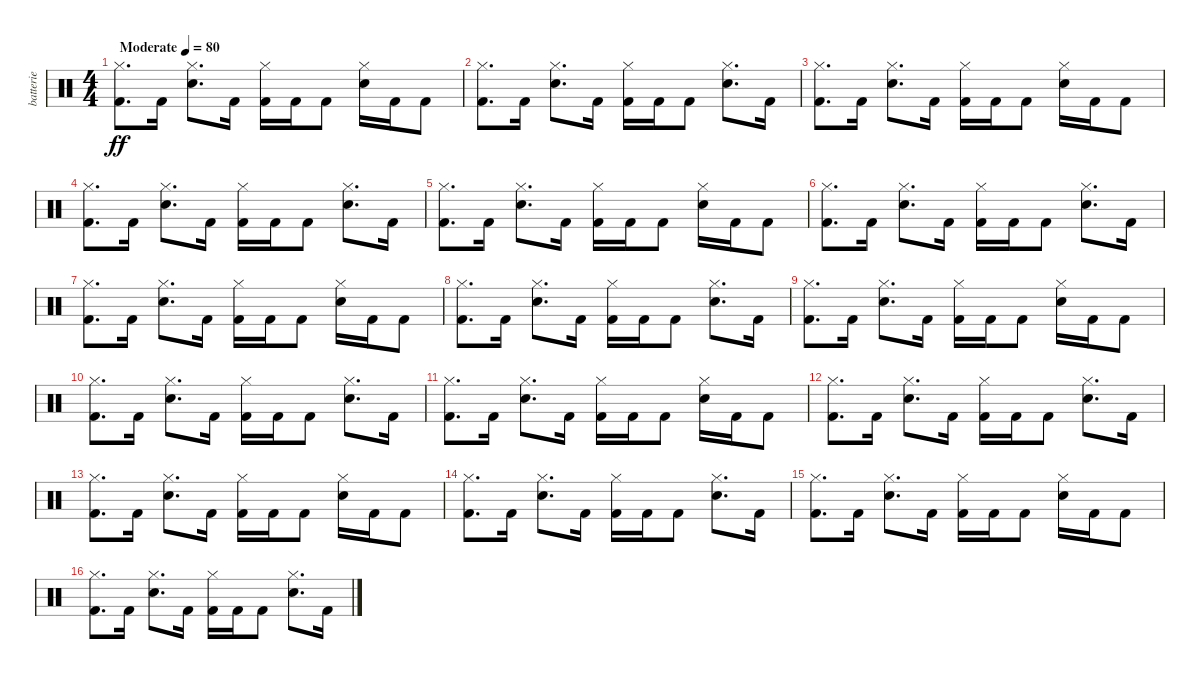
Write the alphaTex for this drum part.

\track ("batterie" "batterie") {instrument percussion}
\staff {score}
\articulation defaults
\ts (4 4)
\tempo (80 "Moderate")
\clef neutral
\ks c
("Kick (hit) 2" "Hi-Hat (closed)").8{d dy ff} "Kick (hit) 2".16 ("Electric Snare (hit)" "Hi-Hat (closed)").8{d} "Kick (hit) 2".16 ("Kick (hit) 2" "Hi-Hat (closed)").16 "Kick (hit) 2".16 "Kick (hit) 2".8 ("Electric Snare (hit)" "Hi-Hat (closed)").16 "Kick (hit) 2".16 "Kick (hit) 2".8 |
("Kick (hit) 2" "Hi-Hat (closed)").8{d} "Kick (hit) 2".16 ("Electric Snare (hit)" "Hi-Hat (closed)").8{d} "Kick (hit) 2".16 ("Kick (hit) 2" "Hi-Hat (closed)").16 "Kick (hit) 2".16 "Kick (hit) 2".8 ("Electric Snare (hit)" "Hi-Hat (closed)").8{d} "Kick (hit) 2".16 |
("Kick (hit) 2" "Hi-Hat (closed)").8{d} "Kick (hit) 2".16 ("Electric Snare (hit)" "Hi-Hat (closed)").8{d} "Kick (hit) 2".16 ("Kick (hit) 2" "Hi-Hat (closed)").16 "Kick (hit) 2".16 "Kick (hit) 2".8 ("Electric Snare (hit)" "Hi-Hat (closed)").16 "Kick (hit) 2".16 "Kick (hit) 2".8 |
("Kick (hit) 2" "Hi-Hat (closed)").8{d} "Kick (hit) 2".16 ("Electric Snare (hit)" "Hi-Hat (closed)").8{d} "Kick (hit) 2".16 ("Kick (hit) 2" "Hi-Hat (closed)").16 "Kick (hit) 2".16 "Kick (hit) 2".8 ("Electric Snare (hit)" "Hi-Hat (closed)").8{d} "Kick (hit) 2".16 |
("Kick (hit) 2" "Hi-Hat (closed)").8{d} "Kick (hit) 2".16 ("Electric Snare (hit)" "Hi-Hat (closed)").8{d} "Kick (hit) 2".16 ("Kick (hit) 2" "Hi-Hat (closed)").16 "Kick (hit) 2".16 "Kick (hit) 2".8 ("Electric Snare (hit)" "Hi-Hat (closed)").16 "Kick (hit) 2".16 "Kick (hit) 2".8 |
("Kick (hit) 2" "Hi-Hat (closed)").8{d} "Kick (hit) 2".16 ("Electric Snare (hit)" "Hi-Hat (closed)").8{d} "Kick (hit) 2".16 ("Kick (hit) 2" "Hi-Hat (closed)").16 "Kick (hit) 2".16 "Kick (hit) 2".8 ("Electric Snare (hit)" "Hi-Hat (closed)").8{d} "Kick (hit) 2".16 |
("Kick (hit) 2" "Hi-Hat (closed)").8{d} "Kick (hit) 2".16 ("Electric Snare (hit)" "Hi-Hat (closed)").8{d} "Kick (hit) 2".16 ("Kick (hit) 2" "Hi-Hat (closed)").16 "Kick (hit) 2".16 "Kick (hit) 2".8 ("Electric Snare (hit)" "Hi-Hat (closed)").16 "Kick (hit) 2".16 "Kick (hit) 2".8 |
("Kick (hit) 2" "Hi-Hat (closed)").8{d} "Kick (hit) 2".16 ("Electric Snare (hit)" "Hi-Hat (closed)").8{d} "Kick (hit) 2".16 ("Kick (hit) 2" "Hi-Hat (closed)").16 "Kick (hit) 2".16 "Kick (hit) 2".8 ("Electric Snare (hit)" "Hi-Hat (closed)").8{d} "Kick (hit) 2".16 |
("Kick (hit) 2" "Hi-Hat (closed)").8{d} "Kick (hit) 2".16 ("Electric Snare (hit)" "Hi-Hat (closed)").8{d} "Kick (hit) 2".16 ("Kick (hit) 2" "Hi-Hat (closed)").16 "Kick (hit) 2".16 "Kick (hit) 2".8 ("Electric Snare (hit)" "Hi-Hat (closed)").16 "Kick (hit) 2".16 "Kick (hit) 2".8 |
("Kick (hit) 2" "Hi-Hat (closed)").8{d} "Kick (hit) 2".16 ("Electric Snare (hit)" "Hi-Hat (closed)").8{d} "Kick (hit) 2".16 ("Kick (hit) 2" "Hi-Hat (closed)").16 "Kick (hit) 2".16 "Kick (hit) 2".8 ("Electric Snare (hit)" "Hi-Hat (closed)").8{d} "Kick (hit) 2".16 |
("Kick (hit) 2" "Hi-Hat (closed)").8{d} "Kick (hit) 2".16 ("Electric Snare (hit)" "Hi-Hat (closed)").8{d} "Kick (hit) 2".16 ("Kick (hit) 2" "Hi-Hat (closed)").16 "Kick (hit) 2".16 "Kick (hit) 2".8 ("Electric Snare (hit)" "Hi-Hat (closed)").16 "Kick (hit) 2".16 "Kick (hit) 2".8 |
("Kick (hit) 2" "Hi-Hat (closed)").8{d} "Kick (hit) 2".16 ("Electric Snare (hit)" "Hi-Hat (closed)").8{d} "Kick (hit) 2".16 ("Kick (hit) 2" "Hi-Hat (closed)").16 "Kick (hit) 2".16 "Kick (hit) 2".8 ("Electric Snare (hit)" "Hi-Hat (closed)").8{d} "Kick (hit) 2".16 |
("Kick (hit) 2" "Hi-Hat (closed)").8{d} "Kick (hit) 2".16 ("Electric Snare (hit)" "Hi-Hat (closed)").8{d} "Kick (hit) 2".16 ("Kick (hit) 2" "Hi-Hat (closed)").16 "Kick (hit) 2".16 "Kick (hit) 2".8 ("Electric Snare (hit)" "Hi-Hat (closed)").16 "Kick (hit) 2".16 "Kick (hit) 2".8 |
("Kick (hit) 2" "Hi-Hat (closed)").8{d} "Kick (hit) 2".16 ("Electric Snare (hit)" "Hi-Hat (closed)").8{d} "Kick (hit) 2".16 ("Kick (hit) 2" "Hi-Hat (closed)").16 "Kick (hit) 2".16 "Kick (hit) 2".8 ("Electric Snare (hit)" "Hi-Hat (closed)").8{d} "Kick (hit) 2".16 |
("Kick (hit) 2" "Hi-Hat (closed)").8{d} "Kick (hit) 2".16 ("Electric Snare (hit)" "Hi-Hat (closed)").8{d} "Kick (hit) 2".16 ("Kick (hit) 2" "Hi-Hat (closed)").16 "Kick (hit) 2".16 "Kick (hit) 2".8 ("Electric Snare (hit)" "Hi-Hat (closed)").16 "Kick (hit) 2".16 "Kick (hit) 2".8 |
("Kick (hit) 2" "Hi-Hat (closed)").8{d} "Kick (hit) 2".16 ("Electric Snare (hit)" "Hi-Hat (closed)").8{d} "Kick (hit) 2".16 ("Kick (hit) 2" "Hi-Hat (closed)").16 "Kick (hit) 2".16 "Kick (hit) 2".8 ("Electric Snare (hit)" "Hi-Hat (closed)").8{d} "Kick (hit) 2".16
